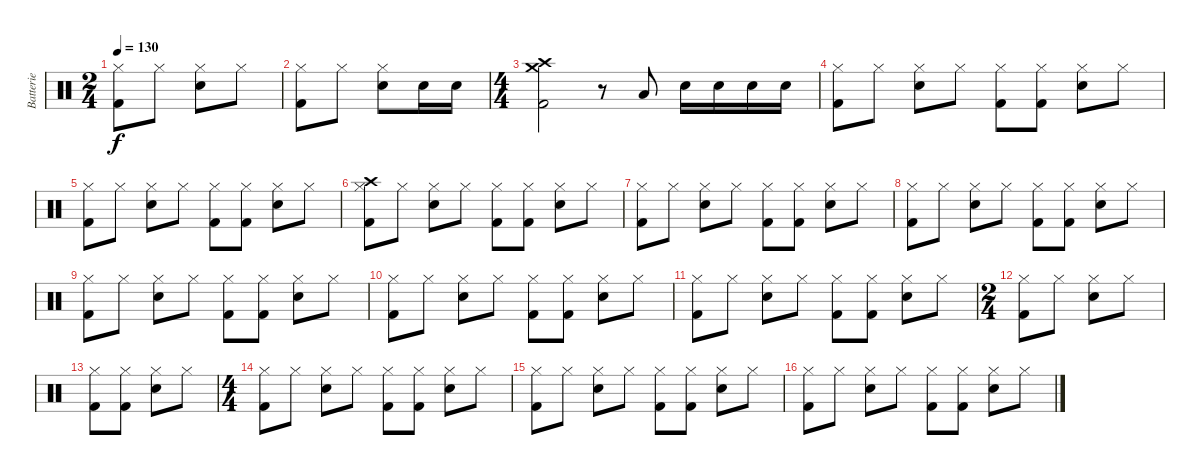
\track ("Batterie" "Batterie") {instrument percussion}
\staff {score}
\articulation defaults
\ts (2 4)
\tempo 130
\clef neutral
\ks c
("Hi-Hat (closed)" "Kick (hit) 2").8{dy f} "Hi-Hat (closed)".8 ("Hi-Hat (closed)" "Snare (hit) 2").8 "Hi-Hat (closed)".8 |
("Hi-Hat (closed)" "Kick (hit) 2").8 "Hi-Hat (closed)".8 ("Hi-Hat (closed)" "Snare (hit) 2").8 "Snare (hit) 2".16 "Snare (hit) 2".16 |
\ts (4 4)
("Crash high (hit)" "Crash medium (hit)" "Kick (hit) 2").2 r.8 "Low Tom (hit)".8 "Snare (hit) 2".16 "Snare (hit) 2".16 "Snare (hit) 2".16 "Snare (hit) 2".16 |
("Hi-Hat (closed)" "Kick (hit) 2").8 "Hi-Hat (closed)".8 ("Hi-Hat (closed)" "Snare (hit) 2").8 "Hi-Hat (closed)".8 ("Hi-Hat (closed)" "Kick (hit) 2").8 ("Hi-Hat (closed)" "Kick (hit) 2").8 ("Hi-Hat (closed)" "Snare (hit) 2").8 "Hi-Hat (closed)".8 |
("Hi-Hat (closed)" "Kick (hit) 2").8 "Hi-Hat (closed)".8 ("Hi-Hat (closed)" "Snare (hit) 2").8 "Hi-Hat (closed)".8 ("Hi-Hat (closed)" "Kick (hit) 2").8 ("Hi-Hat (closed)" "Kick (hit) 2").8 ("Hi-Hat (closed)" "Snare (hit) 2").8 "Hi-Hat (closed)".8 |
("Crash high (hit)" "Hi-Hat (closed)" "Kick (hit) 2").8 "Hi-Hat (closed)".8 ("Hi-Hat (closed)" "Snare (hit) 2").8 "Hi-Hat (closed)".8 ("Hi-Hat (closed)" "Kick (hit) 2").8 ("Hi-Hat (closed)" "Kick (hit) 2").8 ("Hi-Hat (closed)" "Snare (hit) 2").8 "Hi-Hat (closed)".8 |
("Hi-Hat (closed)" "Kick (hit) 2").8 "Hi-Hat (closed)".8 ("Hi-Hat (closed)" "Snare (hit) 2").8 "Hi-Hat (closed)".8 ("Hi-Hat (closed)" "Kick (hit) 2").8 ("Hi-Hat (closed)" "Kick (hit) 2").8 ("Hi-Hat (closed)" "Snare (hit) 2").8 "Hi-Hat (closed)".8 |
("Hi-Hat (closed)" "Kick (hit) 2").8 "Hi-Hat (closed)".8 ("Hi-Hat (closed)" "Snare (hit) 2").8 "Hi-Hat (closed)".8 ("Hi-Hat (closed)" "Kick (hit) 2").8 ("Hi-Hat (closed)" "Kick (hit) 2").8 ("Hi-Hat (closed)" "Snare (hit) 2").8 "Hi-Hat (closed)".8 |
("Hi-Hat (closed)" "Kick (hit) 2").8 "Hi-Hat (closed)".8 ("Hi-Hat (closed)" "Snare (hit) 2").8 "Hi-Hat (closed)".8 ("Hi-Hat (closed)" "Kick (hit) 2").8 ("Hi-Hat (closed)" "Kick (hit) 2").8 ("Hi-Hat (closed)" "Snare (hit) 2").8 "Hi-Hat (closed)".8 |
("Hi-Hat (closed)" "Kick (hit) 2").8 "Hi-Hat (closed)".8 ("Hi-Hat (closed)" "Snare (hit) 2").8 "Hi-Hat (closed)".8 ("Hi-Hat (closed)" "Kick (hit) 2").8 ("Hi-Hat (closed)" "Kick (hit) 2").8 ("Hi-Hat (closed)" "Snare (hit) 2").8 "Hi-Hat (closed)".8 |
("Hi-Hat (closed)" "Kick (hit) 2").8 "Hi-Hat (closed)".8 ("Hi-Hat (closed)" "Snare (hit) 2").8 "Hi-Hat (closed)".8 ("Hi-Hat (closed)" "Kick (hit) 2").8 ("Hi-Hat (closed)" "Kick (hit) 2").8 ("Hi-Hat (closed)" "Snare (hit) 2").8 "Hi-Hat (closed)".8 |
\ts (2 4)
("Hi-Hat (closed)" "Kick (hit) 2").8 "Hi-Hat (closed)".8 ("Hi-Hat (closed)" "Snare (hit) 2").8 "Hi-Hat (closed)".8 |
("Hi-Hat (closed)" "Kick (hit) 2").8 ("Hi-Hat (closed)" "Kick (hit) 2").8 ("Hi-Hat (closed)" "Snare (hit) 2").8 "Hi-Hat (closed)".8 |
\ts (4 4)
("Hi-Hat (closed)" "Kick (hit) 2").8 "Hi-Hat (closed)".8 ("Hi-Hat (closed)" "Snare (hit) 2").8 "Hi-Hat (closed)".8 ("Hi-Hat (closed)" "Kick (hit) 2").8 ("Hi-Hat (closed)" "Kick (hit) 2").8 ("Hi-Hat (closed)" "Snare (hit) 2").8 "Hi-Hat (closed)".8 |
("Hi-Hat (closed)" "Kick (hit) 2").8 "Hi-Hat (closed)".8 ("Hi-Hat (closed)" "Snare (hit) 2").8 "Hi-Hat (closed)".8 ("Hi-Hat (closed)" "Kick (hit) 2").8 ("Hi-Hat (closed)" "Kick (hit) 2").8 ("Hi-Hat (closed)" "Snare (hit) 2").8 "Hi-Hat (closed)".8 |
("Hi-Hat (closed)" "Kick (hit) 2").8 "Hi-Hat (closed)".8 ("Hi-Hat (closed)" "Snare (hit) 2").8 "Hi-Hat (closed)".8 ("Hi-Hat (closed)" "Kick (hit) 2").8 ("Hi-Hat (closed)" "Kick (hit) 2").8 ("Hi-Hat (closed)" "Snare (hit) 2").8 "Hi-Hat (closed)".8
